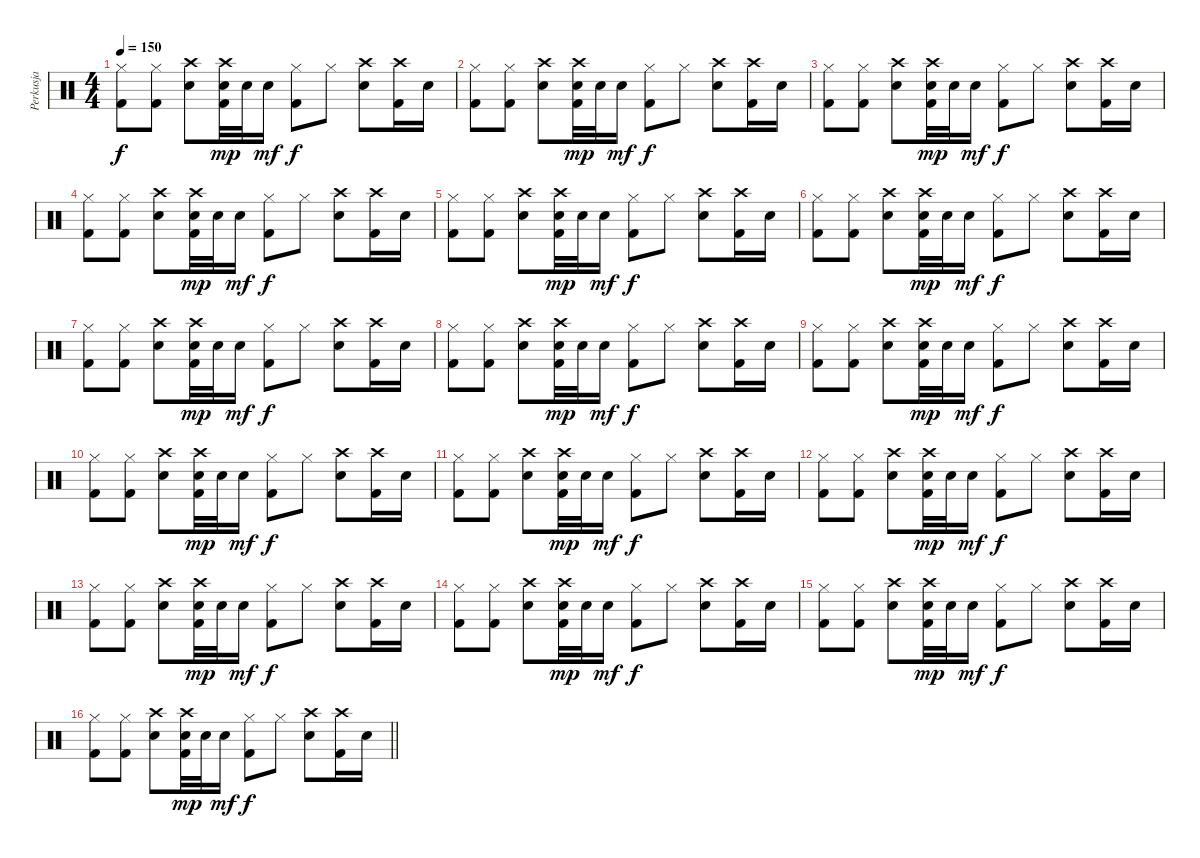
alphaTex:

\track ("Perkusja" "Perkusja") {instrument percussion}
\staff {score}
\articulation defaults
\ts (4 4)
\tempo 150
\clef neutral
\ks c
("Hi-Hat (closed)" "Kick (hit) 2").8{dy f} ("Hi-Hat (closed)" "Kick (hit) 2").8 ("Crash high (hit)" "Electric Snare (hit)").8 ("Crash high (hit)" "Electric Snare (hit)" "Kick (hit) 2").32{dy mp} "Electric Snare (hit)".32 "Electric Snare (hit)".16{dy mf} ("Hi-Hat (closed)" "Kick (hit) 2").8{dy f} "Hi-Hat (closed)".8 ("Crash high (hit)" "Electric Snare (hit)").8 ("Crash high (hit)" "Kick (hit) 2").16 "Electric Snare (hit)".16 |
("Hi-Hat (closed)" "Kick (hit) 2").8 ("Hi-Hat (closed)" "Kick (hit) 2").8 ("Crash high (hit)" "Electric Snare (hit)").8 ("Crash high (hit)" "Electric Snare (hit)" "Kick (hit) 2").32{dy mp} "Electric Snare (hit)".32 "Electric Snare (hit)".16{dy mf} ("Hi-Hat (closed)" "Kick (hit) 2").8{dy f} "Hi-Hat (closed)".8 ("Crash high (hit)" "Electric Snare (hit)").8 ("Crash high (hit)" "Kick (hit) 2").16 "Electric Snare (hit)".16 |
("Hi-Hat (closed)" "Kick (hit) 2").8 ("Hi-Hat (closed)" "Kick (hit) 2").8 ("Crash high (hit)" "Electric Snare (hit)").8 ("Crash high (hit)" "Electric Snare (hit)" "Kick (hit) 2").32{dy mp} "Electric Snare (hit)".32 "Electric Snare (hit)".16{dy mf} ("Hi-Hat (closed)" "Kick (hit) 2").8{dy f} "Hi-Hat (closed)".8 ("Crash high (hit)" "Electric Snare (hit)").8 ("Crash high (hit)" "Kick (hit) 2").16 "Electric Snare (hit)".16 |
("Hi-Hat (closed)" "Kick (hit) 2").8 ("Hi-Hat (closed)" "Kick (hit) 2").8 ("Crash high (hit)" "Electric Snare (hit)").8 ("Crash high (hit)" "Electric Snare (hit)" "Kick (hit) 2").32{dy mp} "Electric Snare (hit)".32 "Electric Snare (hit)".16{dy mf} ("Hi-Hat (closed)" "Kick (hit) 2").8{dy f} "Hi-Hat (closed)".8 ("Crash high (hit)" "Electric Snare (hit)").8 ("Crash high (hit)" "Kick (hit) 2").16 "Electric Snare (hit)".16 |
("Hi-Hat (closed)" "Kick (hit) 2").8 ("Hi-Hat (closed)" "Kick (hit) 2").8 ("Crash high (hit)" "Electric Snare (hit)").8 ("Crash high (hit)" "Electric Snare (hit)" "Kick (hit) 2").32{dy mp} "Electric Snare (hit)".32 "Electric Snare (hit)".16{dy mf} ("Hi-Hat (closed)" "Kick (hit) 2").8{dy f} "Hi-Hat (closed)".8 ("Crash high (hit)" "Electric Snare (hit)").8 ("Crash high (hit)" "Kick (hit) 2").16 "Electric Snare (hit)".16 |
("Hi-Hat (closed)" "Kick (hit) 2").8 ("Hi-Hat (closed)" "Kick (hit) 2").8 ("Crash high (hit)" "Electric Snare (hit)").8 ("Crash high (hit)" "Electric Snare (hit)" "Kick (hit) 2").32{dy mp} "Electric Snare (hit)".32 "Electric Snare (hit)".16{dy mf} ("Hi-Hat (closed)" "Kick (hit) 2").8{dy f} "Hi-Hat (closed)".8 ("Crash high (hit)" "Electric Snare (hit)").8 ("Crash high (hit)" "Kick (hit) 2").16 "Electric Snare (hit)".16 |
("Hi-Hat (closed)" "Kick (hit) 2").8 ("Hi-Hat (closed)" "Kick (hit) 2").8 ("Crash high (hit)" "Electric Snare (hit)").8 ("Crash high (hit)" "Electric Snare (hit)" "Kick (hit) 2").32{dy mp} "Electric Snare (hit)".32 "Electric Snare (hit)".16{dy mf} ("Hi-Hat (closed)" "Kick (hit) 2").8{dy f} "Hi-Hat (closed)".8 ("Crash high (hit)" "Electric Snare (hit)").8 ("Crash high (hit)" "Kick (hit) 2").16 "Electric Snare (hit)".16 |
("Hi-Hat (closed)" "Kick (hit) 2").8 ("Hi-Hat (closed)" "Kick (hit) 2").8 ("Crash high (hit)" "Electric Snare (hit)").8 ("Crash high (hit)" "Electric Snare (hit)" "Kick (hit) 2").32{dy mp} "Electric Snare (hit)".32 "Electric Snare (hit)".16{dy mf} ("Hi-Hat (closed)" "Kick (hit) 2").8{dy f} "Hi-Hat (closed)".8 ("Crash high (hit)" "Electric Snare (hit)").8 ("Crash high (hit)" "Kick (hit) 2").16 "Electric Snare (hit)".16 |
("Hi-Hat (closed)" "Kick (hit) 2").8 ("Hi-Hat (closed)" "Kick (hit) 2").8 ("Crash high (hit)" "Electric Snare (hit)").8 ("Crash high (hit)" "Electric Snare (hit)" "Kick (hit) 2").32{dy mp} "Electric Snare (hit)".32 "Electric Snare (hit)".16{dy mf} ("Hi-Hat (closed)" "Kick (hit) 2").8{dy f} "Hi-Hat (closed)".8 ("Crash high (hit)" "Electric Snare (hit)").8 ("Crash high (hit)" "Kick (hit) 2").16 "Electric Snare (hit)".16 |
("Hi-Hat (closed)" "Kick (hit) 2").8 ("Hi-Hat (closed)" "Kick (hit) 2").8 ("Crash high (hit)" "Electric Snare (hit)").8 ("Crash high (hit)" "Electric Snare (hit)" "Kick (hit) 2").32{dy mp} "Electric Snare (hit)".32 "Electric Snare (hit)".16{dy mf} ("Hi-Hat (closed)" "Kick (hit) 2").8{dy f} "Hi-Hat (closed)".8 ("Crash high (hit)" "Electric Snare (hit)").8 ("Crash high (hit)" "Kick (hit) 2").16 "Electric Snare (hit)".16 |
("Hi-Hat (closed)" "Kick (hit) 2").8 ("Hi-Hat (closed)" "Kick (hit) 2").8 ("Crash high (hit)" "Electric Snare (hit)").8 ("Crash high (hit)" "Electric Snare (hit)" "Kick (hit) 2").32{dy mp} "Electric Snare (hit)".32 "Electric Snare (hit)".16{dy mf} ("Hi-Hat (closed)" "Kick (hit) 2").8{dy f} "Hi-Hat (closed)".8 ("Crash high (hit)" "Electric Snare (hit)").8 ("Crash high (hit)" "Kick (hit) 2").16 "Electric Snare (hit)".16 |
("Hi-Hat (closed)" "Kick (hit) 2").8 ("Hi-Hat (closed)" "Kick (hit) 2").8 ("Crash high (hit)" "Electric Snare (hit)").8 ("Crash high (hit)" "Electric Snare (hit)" "Kick (hit) 2").32{dy mp} "Electric Snare (hit)".32 "Electric Snare (hit)".16{dy mf} ("Hi-Hat (closed)" "Kick (hit) 2").8{dy f} "Hi-Hat (closed)".8 ("Crash high (hit)" "Electric Snare (hit)").8 ("Crash high (hit)" "Kick (hit) 2").16 "Electric Snare (hit)".16 |
("Hi-Hat (closed)" "Kick (hit) 2").8 ("Hi-Hat (closed)" "Kick (hit) 2").8 ("Crash high (hit)" "Electric Snare (hit)").8 ("Crash high (hit)" "Electric Snare (hit)" "Kick (hit) 2").32{dy mp} "Electric Snare (hit)".32 "Electric Snare (hit)".16{dy mf} ("Hi-Hat (closed)" "Kick (hit) 2").8{dy f} "Hi-Hat (closed)".8 ("Crash high (hit)" "Electric Snare (hit)").8 ("Crash high (hit)" "Kick (hit) 2").16 "Electric Snare (hit)".16 |
("Hi-Hat (closed)" "Kick (hit) 2").8 ("Hi-Hat (closed)" "Kick (hit) 2").8 ("Crash high (hit)" "Electric Snare (hit)").8 ("Crash high (hit)" "Electric Snare (hit)" "Kick (hit) 2").32{dy mp} "Electric Snare (hit)".32 "Electric Snare (hit)".16{dy mf} ("Hi-Hat (closed)" "Kick (hit) 2").8{dy f} "Hi-Hat (closed)".8 ("Crash high (hit)" "Electric Snare (hit)").8 ("Crash high (hit)" "Kick (hit) 2").16 "Electric Snare (hit)".16 |
("Hi-Hat (closed)" "Kick (hit) 2").8 ("Hi-Hat (closed)" "Kick (hit) 2").8 ("Crash high (hit)" "Electric Snare (hit)").8 ("Crash high (hit)" "Electric Snare (hit)" "Kick (hit) 2").32{dy mp} "Electric Snare (hit)".32 "Electric Snare (hit)".16{dy mf} ("Hi-Hat (closed)" "Kick (hit) 2").8{dy f} "Hi-Hat (closed)".8 ("Crash high (hit)" "Electric Snare (hit)").8 ("Crash high (hit)" "Kick (hit) 2").16 "Electric Snare (hit)".16 |
\barLineRight lightlight
("Hi-Hat (closed)" "Kick (hit) 2").8 ("Hi-Hat (closed)" "Kick (hit) 2").8 ("Crash high (hit)" "Electric Snare (hit)").8 ("Crash high (hit)" "Electric Snare (hit)" "Kick (hit) 2").32{dy mp} "Electric Snare (hit)".32 "Electric Snare (hit)".16{dy mf} ("Hi-Hat (closed)" "Kick (hit) 2").8{dy f} "Hi-Hat (closed)".8 ("Crash high (hit)" "Electric Snare (hit)").8 ("Crash high (hit)" "Kick (hit) 2").16 "Electric Snare (hit)".16
